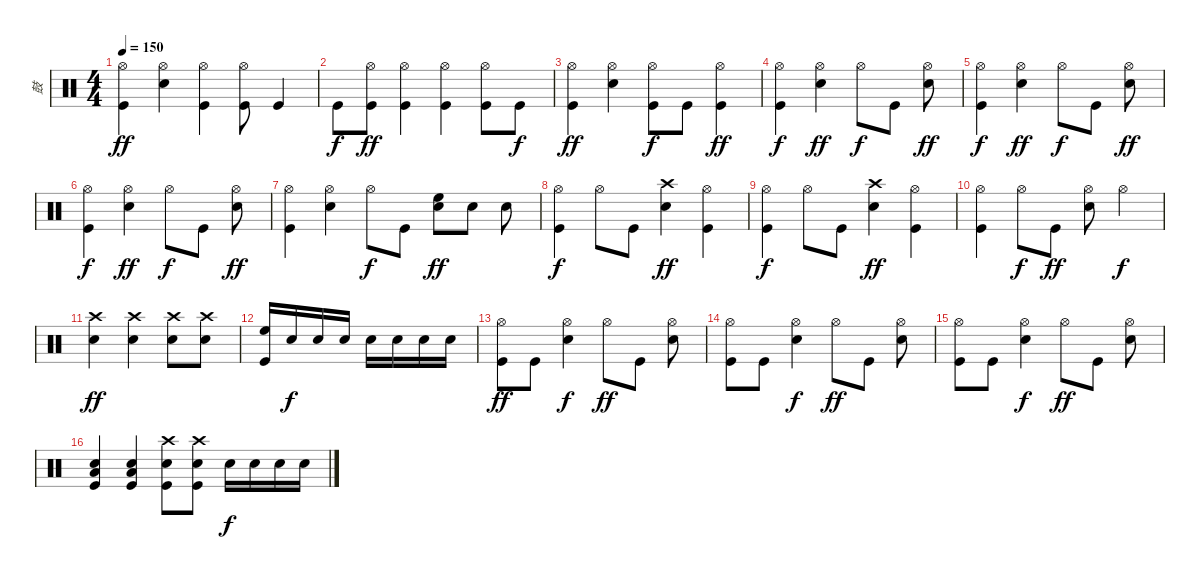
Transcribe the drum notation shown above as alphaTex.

\track ("鼓" "鼓") {instrument percussion}
\staff {score}
\articulation defaults
\ts (4 4)
\tempo 150
\clef neutral
\ks c
("Hi-Hat (open)" "Kick (hit)").4{dy ff} ("Hi-Hat (open)" "Electric Snare (hit)").4 ("Hi-Hat (open)" "Kick (hit)").4 ("Hi-Hat (open)" "Kick (hit)").8 "Kick (hit)".4 |
"Kick (hit)".8{dy f} ("Hi-Hat (open)" "Kick (hit)").8{dy ff} ("Hi-Hat (open)" "Kick (hit)").4 ("Hi-Hat (open)" "Kick (hit)").4 ("Hi-Hat (open)" "Kick (hit)").8 "Kick (hit)".8{dy f} |
("Hi-Hat (open)" "Kick (hit)").4{dy ff} ("Hi-Hat (open)" "Electric Snare (hit)").4 ("Hi-Hat (open)" "Kick (hit)").8{dy f} "Kick (hit)".8 ("Hi-Hat (open)" "Kick (hit)").4{dy ff} |
("Hi-Hat (open)" "Kick (hit)").4{dy f} ("Hi-Hat (open)" "Electric Snare (hit)").4{dy ff} "Hi-Hat (open)".8{dy f} "Kick (hit)".8 ("Hi-Hat (open)" "Electric Snare (hit)").8{dy ff} |
("Hi-Hat (open)" "Kick (hit)").4{dy f} ("Hi-Hat (open)" "Electric Snare (hit)").4{dy ff} "Hi-Hat (open)".8{dy f} "Kick (hit)".8 ("Hi-Hat (open)" "Electric Snare (hit)").8{dy ff} |
("Hi-Hat (open)" "Kick (hit)").4{dy f} ("Hi-Hat (open)" "Electric Snare (hit)").4{dy ff} "Hi-Hat (open)".8{dy f} "Kick (hit)".8 ("Hi-Hat (open)" "Electric Snare (hit)").8{dy ff} |
("Hi-Hat (open)" "Kick (hit)").4 ("Hi-Hat (open)" "Electric Snare (hit)").4 "Hi-Hat (open)".8{dy f} "Kick (hit)".8 ("High Floor Tom (hit)" "Electric Snare (hit)").8{dy ff} "Electric Snare (hit)".8 "Electric Snare (hit)".8 |
("Hi-Hat (open)" "Kick (hit)").4{dy f} "Hi-Hat (open)".8 "Kick (hit)".8 ("Crash high (hit)" "Electric Snare (hit)").4{dy ff} ("Hi-Hat (open)" "Kick (hit)").4 |
("Hi-Hat (open)" "Kick (hit)").4{dy f} "Hi-Hat (open)".8 "Kick (hit)".8 ("Crash high (hit)" "Electric Snare (hit)").4{dy ff} ("Hi-Hat (open)" "Kick (hit)").4 |
("Hi-Hat (open)" "Kick (hit)").4 "Hi-Hat (open)".8{dy f} "Kick (hit)".8{dy ff} ("Hi-Hat (open)" "Electric Snare (hit)").8 "Hi-Hat (open)".4{dy f} |
("Crash high (hit)" "Electric Snare (hit)").4{dy ff} ("Crash high (hit)" "Electric Snare (hit)").4 ("Crash high (hit)" "Electric Snare (hit)").8 ("Crash high (hit)" "Electric Snare (hit)").8 |
("High Floor Tom (hit)" "Kick (hit)").16 "Snare (hit) 2".16{dy f} "Snare (hit) 2".16 "Snare (hit) 2".16 "Snare (hit) 2".16 "Snare (hit) 2".16 "Snare (hit) 2".16 "Snare (hit) 2".16 |
("Hi-Hat (open)" "Kick (hit)").8{dy ff} "Kick (hit)".8 ("Hi-Hat (open)" "Electric Snare (hit)").4{dy f} "Hi-Hat (open)".8{dy ff} "Kick (hit)".8 ("Hi-Hat (open)" "Electric Snare (hit)").8 |
("Hi-Hat (open)" "Kick (hit)").8 "Kick (hit)".8 ("Hi-Hat (open)" "Electric Snare (hit)").4{dy f} "Hi-Hat (open)".8{dy ff} "Kick (hit)".8 ("Hi-Hat (open)" "Electric Snare (hit)").8 |
("Hi-Hat (open)" "Kick (hit)").8 "Kick (hit)".8 ("Hi-Hat (open)" "Electric Snare (hit)").4{dy f} "Hi-Hat (open)".8{dy ff} "Kick (hit)".8 ("Hi-Hat (open)" "Electric Snare (hit)").8 |
("Low Tom (hit)" "Electric Snare (hit)" "Kick (hit)").4 ("Low Tom (hit)" "Electric Snare (hit)" "Kick (hit)").4 ("Crash high (hit)" "Electric Snare (hit)" "Kick (hit)").8 ("Crash high (hit)" "Electric Snare (hit)" "Kick (hit)").8 "Snare (hit) 2".16{dy f} "Snare (hit) 2".16 "Snare (hit) 2".16 "Snare (hit) 2".16
